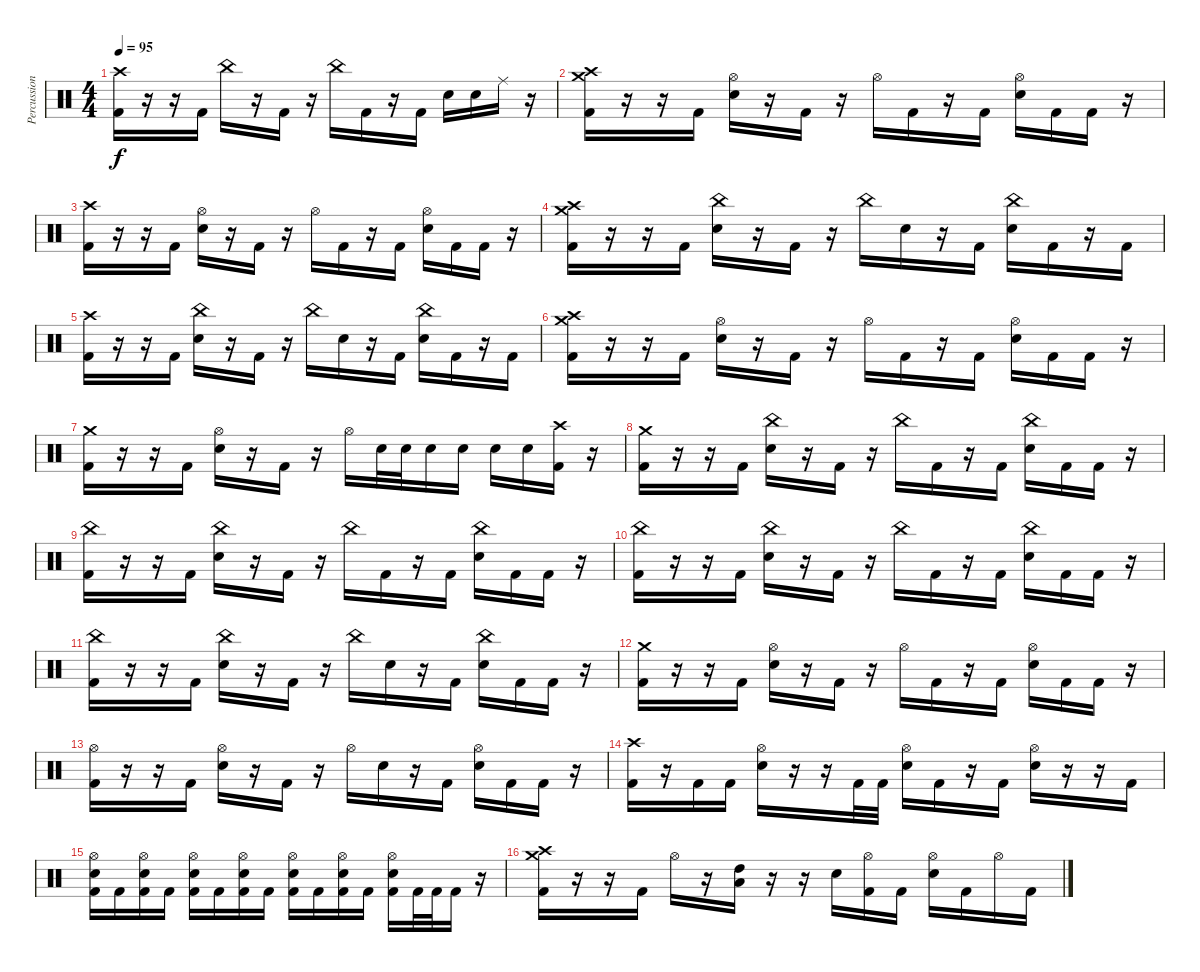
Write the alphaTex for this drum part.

\track ("Percussion" "Percussion") {instrument percussion}
\staff {score}
\articulation defaults
\ts (4 4)
\tempo 95
\clef neutral
\ks c
("Crash high (hit)" "Kick (hit) 2").16{dy f} r.16 r.16 "Kick (hit) 2".16 "China (hit)".16 r.16 "Kick (hit) 2".16 r.16 "China (hit)".16 "Kick (hit) 2".16 r.16 "Kick (hit) 2".16 "Electric Snare (hit)".16 "Electric Snare (hit)".16 "Ride (middle)".16 r.16 |
("Crash medium (hit)" "Crash high (hit)" "Kick (hit) 2").16 r.16 r.16 "Kick (hit) 2".16 ("Hi-Hat (open)" "Electric Snare (hit)").16 r.16 "Kick (hit) 2".16 r.16 "Hi-Hat (open)".16 "Kick (hit) 2".16 r.16 "Kick (hit) 2".16 ("Hi-Hat (open)" "Electric Snare (hit)").16 "Kick (hit) 2".16 "Kick (hit) 2".16 r.16 |
("Crash high (hit)" "Kick (hit) 2").16 r.16 r.16 "Kick (hit) 2".16 ("Hi-Hat (open)" "Electric Snare (hit)").16 r.16 "Kick (hit) 2".16 r.16 "Hi-Hat (open)".16 "Kick (hit) 2".16 r.16 "Kick (hit) 2".16 ("Hi-Hat (open)" "Electric Snare (hit)").16 "Kick (hit) 2".16 "Kick (hit) 2".16 r.16 |
("Crash medium (hit)" "Crash high (hit)" "Kick (hit) 2").16 r.16 r.16 "Kick (hit) 2".16 ("China (hit)" "Electric Snare (hit)").16 r.16 "Kick (hit) 2".16 r.16 "China (hit)".16 "Electric Snare (hit)".16 r.16 "Kick (hit) 2".16 ("China (hit)" "Electric Snare (hit)").16 "Kick (hit) 2".16 r.16 "Kick (hit) 2".16 |
("Crash high (hit)" "Kick (hit) 2").16 r.16 r.16 "Kick (hit) 2".16 ("China (hit)" "Electric Snare (hit)").16 r.16 "Kick (hit) 2".16 r.16 "China (hit)".16 "Electric Snare (hit)".16 r.16 "Kick (hit) 2".16 ("China (hit)" "Electric Snare (hit)").16 "Kick (hit) 2".16 r.16 "Kick (hit) 2".16 |
("Crash medium (hit)" "Crash high (hit)" "Kick (hit) 2").16 r.16 r.16 "Kick (hit) 2".16 ("Hi-Hat (open)" "Electric Snare (hit)").16 r.16 "Kick (hit) 2".16 r.16 "Hi-Hat (open)".16 "Kick (hit) 2".16 r.16 "Kick (hit) 2".16 ("Hi-Hat (open)" "Electric Snare (hit)").16 "Kick (hit) 2".16 "Kick (hit) 2".16 r.16 |
("Crash medium (hit)" "Kick (hit) 2").16 r.16 r.16 "Kick (hit) 2".16 ("Hi-Hat (open)" "Electric Snare (hit)").16 r.16 "Kick (hit) 2".16 r.16 "Hi-Hat (open)".16 "Electric Snare (hit)".32 "Electric Snare (hit)".32 "Electric Snare (hit)".16 "Electric Snare (hit)".16 "Electric Snare (hit)".16 "Electric Snare (hit)".16 ("Crash high (hit)" "Kick (hit) 2").16 r.16 |
("Crash medium (hit)" "Kick (hit) 2").16 r.16 r.16 "Kick (hit) 2".16 ("China (hit)" "Electric Snare (hit)").16 r.16 "Kick (hit) 2".16 r.16 "China (hit)".16 "Kick (hit) 2".16 r.16 "Kick (hit) 2".16 ("China (hit)" "Electric Snare (hit)").16 "Kick (hit) 2".16 "Kick (hit) 2".16 r.16 |
("China (hit)" "Kick (hit) 2").16 r.16 r.16 "Kick (hit) 2".16 ("China (hit)" "Electric Snare (hit)").16 r.16 "Kick (hit) 2".16 r.16 "China (hit)".16 "Kick (hit) 2".16 r.16 "Kick (hit) 2".16 ("China (hit)" "Electric Snare (hit)").16 "Kick (hit) 2".16 "Kick (hit) 2".16 r.16 |
("China (hit)" "Kick (hit) 2").16 r.16 r.16 "Kick (hit) 2".16 ("China (hit)" "Electric Snare (hit)").16 r.16 "Kick (hit) 2".16 r.16 "China (hit)".16 "Kick (hit) 2".16 r.16 "Kick (hit) 2".16 ("China (hit)" "Electric Snare (hit)").16 "Kick (hit) 2".16 "Kick (hit) 2".16 r.16 |
("China (hit)" "Kick (hit) 2").16 r.16 r.16 "Kick (hit) 2".16 ("China (hit)" "Electric Snare (hit)").16 r.16 "Kick (hit) 2".16 r.16 "China (hit)".16 "Electric Snare (hit)".16 r.16 "Kick (hit) 2".16 ("China (hit)" "Electric Snare (hit)").16 "Kick (hit) 2".16 "Kick (hit) 2".16 r.16 |
("Crash medium (hit)" "Kick (hit) 2").16 r.16 r.16 "Kick (hit) 2".16 ("Hi-Hat (open)" "Electric Snare (hit)").16 r.16 "Kick (hit) 2".16 r.16 "Hi-Hat (open)".16 "Kick (hit) 2".16 r.16 "Kick (hit) 2".16 ("Hi-Hat (open)" "Electric Snare (hit)").16 "Kick (hit) 2".16 "Kick (hit) 2".16 r.16 |
("Hi-Hat (open)" "Kick (hit) 2").16 r.16 r.16 "Kick (hit) 2".16 ("Hi-Hat (open)" "Electric Snare (hit)").16 r.16 "Kick (hit) 2".16 r.16 "Hi-Hat (open)".16 "Electric Snare (hit)".16 r.16 "Kick (hit) 2".16 ("Hi-Hat (open)" "Electric Snare (hit)").16 "Kick (hit) 2".16 "Kick (hit) 2".16 r.16 |
("Crash high (hit)" "Kick (hit) 2").16 r.16 "Kick (hit) 2".16 "Kick (hit) 2".16 ("Hi-Hat (open)" "Electric Snare (hit)").16 r.16 r.16 "Kick (hit) 2".32 "Kick (hit) 2".32 ("Hi-Hat (open)" "Electric Snare (hit)").16 "Kick (hit) 2".16 r.16 "Kick (hit) 2".16 ("Hi-Hat (open)" "Electric Snare (hit)").16 r.16 r.16 "Kick (hit) 2".16 |
("Hi-Hat (open)" "Electric Snare (hit)" "Kick (hit) 2").16 "Kick (hit) 2".16 ("Hi-Hat (open)" "Electric Snare (hit)" "Kick (hit) 2").16 "Kick (hit) 2".16 ("Hi-Hat (open)" "Electric Snare (hit)" "Kick (hit) 2").16 "Kick (hit) 2".16 ("Hi-Hat (open)" "Electric Snare (hit)" "Kick (hit) 2").16 "Kick (hit) 2".16 ("Hi-Hat (open)" "Electric Snare (hit)" "Kick (hit) 2").16 "Kick (hit) 2".16 ("Hi-Hat (open)" "Electric Snare (hit)" "Kick (hit) 2").16 "Kick (hit) 2".16 ("Hi-Hat (open)" "Electric Snare (hit)" "Kick (hit) 2").16 "Kick (hit) 2".32 "Kick (hit) 2".32 "Kick (hit) 2".16 r.16 |
("Crash medium (hit)" "Crash high (hit)" "Kick (hit) 2").16 r.16 r.16 "Kick (hit) 2".16 "Hi-Hat (open)".16 r.16 ("High Tom (hit)" "Low Tom (hit)").16 r.16 r.16 "Electric Snare (hit)".16 ("Hi-Hat (open)" "Kick (hit) 2").16 "Kick (hit) 2".16 ("Hi-Hat (open)" "Electric Snare (hit)").16 "Kick (hit) 2".16 "Hi-Hat (open)".16 "Kick (hit) 2".16
